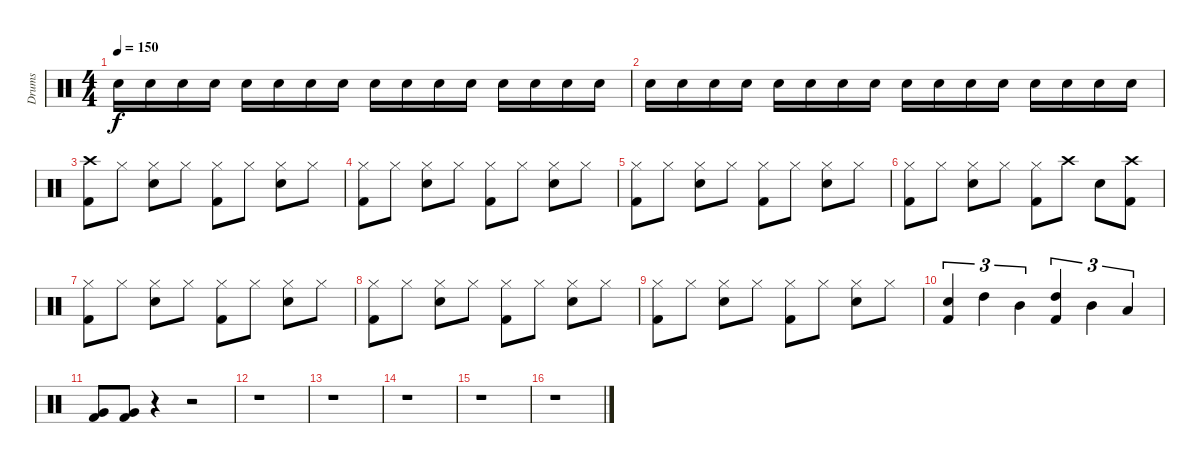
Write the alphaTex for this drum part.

\track ("Drums" "Drums") {instrument percussion}
\staff {score}
\articulation defaults
\ts (4 4)
\tempo 150
\clef neutral
\ks c "Electric Snare (hit)".16{dy f} "Electric Snare (hit)".16 "Electric Snare (hit)".16 "Electric Snare (hit)".16 "Electric Snare (hit)".16 "Electric Snare (hit)".16 "Electric Snare (hit)".16 "Electric Snare (hit)".16 "Electric Snare (hit)".16 "Electric Snare (hit)".16 "Electric Snare (hit)".16 "Electric Snare (hit)".16 "Electric Snare (hit)".16 "Electric Snare (hit)".16 "Electric Snare (hit)".16 "Electric Snare (hit)".16
|
"Electric Snare (hit)".16 "Electric Snare (hit)".16 "Electric Snare (hit)".16 "Electric Snare (hit)".16 "Electric Snare (hit)".16 "Electric Snare (hit)".16 "Electric Snare (hit)".16 "Electric Snare (hit)".16 "Electric Snare (hit)".16 "Electric Snare (hit)".16 "Electric Snare (hit)".16 "Electric Snare (hit)".16 "Electric Snare (hit)".16 "Electric Snare (hit)".16 "Electric Snare (hit)".16 "Electric Snare (hit)".16 |
("Crash high (hit)" "Kick (hit) 2").8 "Hi-Hat (closed)".8 ("Hi-Hat (closed)" "Electric Snare (hit)").8 "Hi-Hat (closed)".8 ("Hi-Hat (closed)" "Kick (hit) 2").8 "Hi-Hat (closed)".8 ("Hi-Hat (closed)" "Electric Snare (hit)").8 "Hi-Hat (closed)".8 |
("Hi-Hat (closed)" "Kick (hit) 2").8 "Hi-Hat (closed)".8 ("Hi-Hat (closed)" "Electric Snare (hit)").8 "Hi-Hat (closed)".8 ("Hi-Hat (closed)" "Kick (hit) 2").8 "Hi-Hat (closed)".8 ("Hi-Hat (closed)" "Electric Snare (hit)").8 "Hi-Hat (closed)".8 |
("Hi-Hat (closed)" "Kick (hit) 2").8 "Hi-Hat (closed)".8 ("Hi-Hat (closed)" "Electric Snare (hit)").8 "Hi-Hat (closed)".8 ("Hi-Hat (closed)" "Kick (hit) 2").8 "Hi-Hat (closed)".8 ("Hi-Hat (closed)" "Electric Snare (hit)").8 "Hi-Hat (closed)".8 |
("Hi-Hat (closed)" "Kick (hit) 2").8 "Hi-Hat (closed)".8 ("Hi-Hat (closed)" "Electric Snare (hit)").8 "Hi-Hat (closed)".8 ("Hi-Hat (closed)" "Kick (hit) 2").8 "Crash high (hit)".8 "Electric Snare (hit)".8 ("Crash high (hit)" "Kick (hit) 2").8 |
("Hi-Hat (closed)" "Kick (hit) 2").8 "Hi-Hat (closed)".8 ("Hi-Hat (closed)" "Electric Snare (hit)").8 "Hi-Hat (closed)".8 ("Hi-Hat (closed)" "Kick (hit) 2").8 "Hi-Hat (closed)".8 ("Hi-Hat (closed)" "Electric Snare (hit)").8 "Hi-Hat (closed)".8 |
("Hi-Hat (closed)" "Kick (hit) 2").8 "Hi-Hat (closed)".8 ("Hi-Hat (closed)" "Electric Snare (hit)").8 "Hi-Hat (closed)".8 ("Hi-Hat (closed)" "Kick (hit) 2").8 "Hi-Hat (closed)".8 ("Hi-Hat (closed)" "Electric Snare (hit)").8 "Hi-Hat (closed)".8 |
("Hi-Hat (closed)" "Kick (hit) 2").8 "Hi-Hat (closed)".8 ("Hi-Hat (closed)" "Electric Snare (hit)").8 "Hi-Hat (closed)".8 ("Hi-Hat (closed)" "Kick (hit) 2").8 "Hi-Hat (closed)".8 ("Hi-Hat (closed)" "Electric Snare (hit)").8 "Hi-Hat (closed)".8 |
("Electric Snare (hit)" "Kick (hit) 2").4{tu (3 2)} "High Tom (hit)".4{tu (3 2)} "Mid Tom (hit)".4{tu (3 2)} ("High Tom (hit)" "Kick (hit) 2").4{tu (3 2)} "Mid Tom (hit)".4{tu (3 2)} "Low Tom (hit)".4{tu (3 2)} |
("Very Low Tom (hit)" "Kick (hit) 2").8 ("Very Low Tom (hit)" "Kick (hit) 2").8 r.4 r.2 |
r.1 |
r.1 |
r.1 |
r.1 |
r.1
